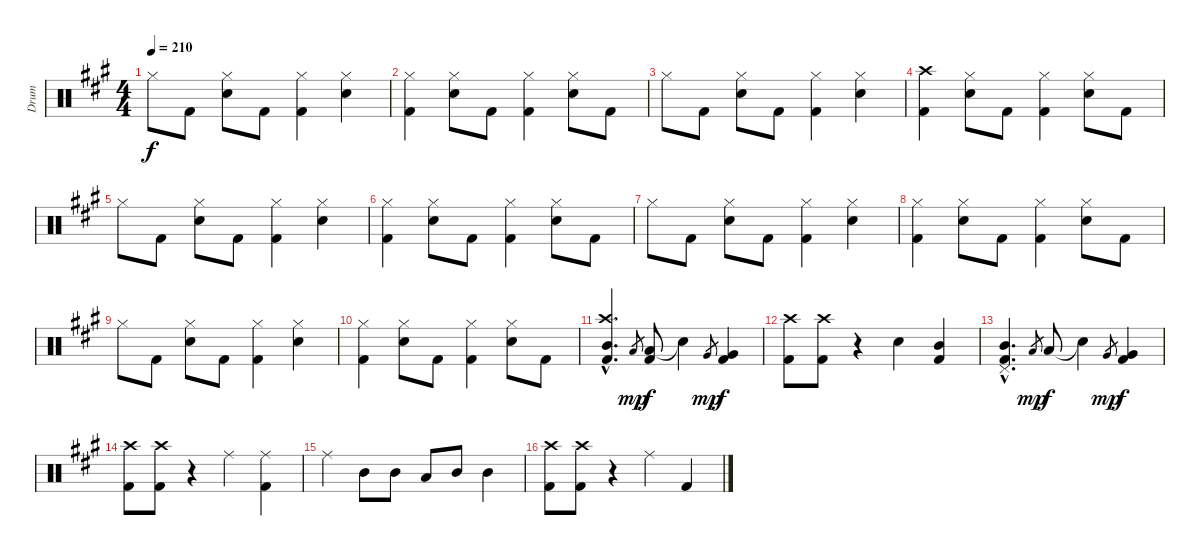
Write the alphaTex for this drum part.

\track ("Drum" "Drum") {instrument percussion}
\staff {score}
\articulation defaults
\ts (4 4)
\tempo 210
\clef neutral
\ks a "Hi-Hat (closed)".8{dy f} "Kick (hit) 2".8
("Hi-Hat (closed)" "Electric Snare (hit)").8 "Kick (hit) 2".8 ("Hi-Hat (closed)" "Kick (hit) 2").4 ("Hi-Hat (closed)" "Electric Snare (hit)").4 |
("Hi-Hat (closed)" "Kick (hit) 2").4 ("Hi-Hat (closed)" "Electric Snare (hit)").8 "Kick (hit) 2".8 ("Hi-Hat (closed)" "Kick (hit) 2").4 ("Hi-Hat (closed)" "Electric Snare (hit)").8 "Kick (hit) 2".8 |
"Hi-Hat (closed)".8 "Kick (hit) 2".8 ("Hi-Hat (closed)" "Electric Snare (hit)").8 "Kick (hit) 2".8 ("Hi-Hat (closed)" "Kick (hit) 2").4 ("Hi-Hat (closed)" "Electric Snare (hit)").4 |
("Crash high (hit)" "Kick (hit) 2").4 ("Hi-Hat (closed)" "Electric Snare (hit)").8 "Kick (hit) 2".8 ("Hi-Hat (closed)" "Kick (hit) 2").4 ("Hi-Hat (closed)" "Electric Snare (hit)").8 "Kick (hit) 2".8 |
"Hi-Hat (closed)".8 "Kick (hit) 2".8 ("Hi-Hat (closed)" "Electric Snare (hit)").8 "Kick (hit) 2".8 ("Hi-Hat (closed)" "Kick (hit) 2").4 ("Hi-Hat (closed)" "Electric Snare (hit)").4 |
("Hi-Hat (closed)" "Kick (hit) 2").4 ("Hi-Hat (closed)" "Electric Snare (hit)").8 "Kick (hit) 2".8 ("Hi-Hat (closed)" "Kick (hit) 2").4 ("Hi-Hat (closed)" "Electric Snare (hit)").8 "Kick (hit) 2".8 |
"Hi-Hat (closed)".8 "Kick (hit) 2".8 ("Hi-Hat (closed)" "Electric Snare (hit)").8 "Kick (hit) 2".8 ("Hi-Hat (closed)" "Kick (hit) 2").4 ("Hi-Hat (closed)" "Electric Snare (hit)").4 |
("Hi-Hat (closed)" "Kick (hit) 2").4 ("Hi-Hat (closed)" "Electric Snare (hit)").8 "Kick (hit) 2".8 ("Hi-Hat (closed)" "Kick (hit) 2").4 ("Hi-Hat (closed)" "Electric Snare (hit)").8 "Kick (hit) 2".8 |
"Hi-Hat (closed)".8 "Kick (hit) 2".8 ("Hi-Hat (closed)" "Electric Snare (hit)").8 "Kick (hit) 2".8 ("Hi-Hat (closed)" "Kick (hit) 2").4 ("Hi-Hat (closed)" "Electric Snare (hit)").4 |
("Hi-Hat (closed)" "Kick (hit) 2").4 ("Hi-Hat (closed)" "Electric Snare (hit)").8 "Kick (hit) 2".8 ("Hi-Hat (closed)" "Kick (hit) 2").4 ("Hi-Hat (closed)" "Electric Snare (hit)").8 "Kick (hit) 2".8 |
("Crash high (hit)"{hac} "Mid Tom (hit)"{hac} "Kick (hit) 2"{hac}).4{d} "Low Tom (hit)".8{gr dy mp} ("Low Tom (hit)" "Kick (hit) 2").8{dy f} "Snare (hit)"{t}.4 "Very Low Tom (hit)".8{gr dy mp} ("Very Low Tom (hit)" "Kick (hit) 2").4{dy f} |
("Crash high (hit)" "Kick (hit) 2").8 ("Crash high (hit)" "Kick (hit) 2").8 r.4 "Electric Snare (hit)".4 ("Mid Tom (hit)" "Kick (hit) 2").4 |
("Pedal Hi-Hat (hit)"{hac} "Mid Tom (hit)"{hac} "Kick (hit) 2"{hac}).4{d} "Low Tom (hit)".8{gr dy mp} "Low Tom (hit)".8{dy f} "Snare (hit)"{t}.4 "Very Low Tom (hit)".8{gr dy mp} ("Very Low Tom (hit)" "Kick (hit) 2").4{dy f} |
("Crash high (hit)" "Kick (hit) 2").8 ("Crash high (hit)" "Kick (hit) 2").8 r.4 "Ride (middle)".4 ("Ride (middle)" "Kick (hit) 2").4 |
"Ride (middle)".4 "Mid Tom (hit)".8 "Mid Tom (hit)".8 "Low Tom (hit)".8 "Mid Tom (hit)".8 "Mid Tom (hit)".4 |
("Crash high (hit)" "Kick (hit) 2").8 ("Crash high (hit)" "Kick (hit) 2").8 r.4 "Ride (middle)".4 "Kick (hit) 2".4
